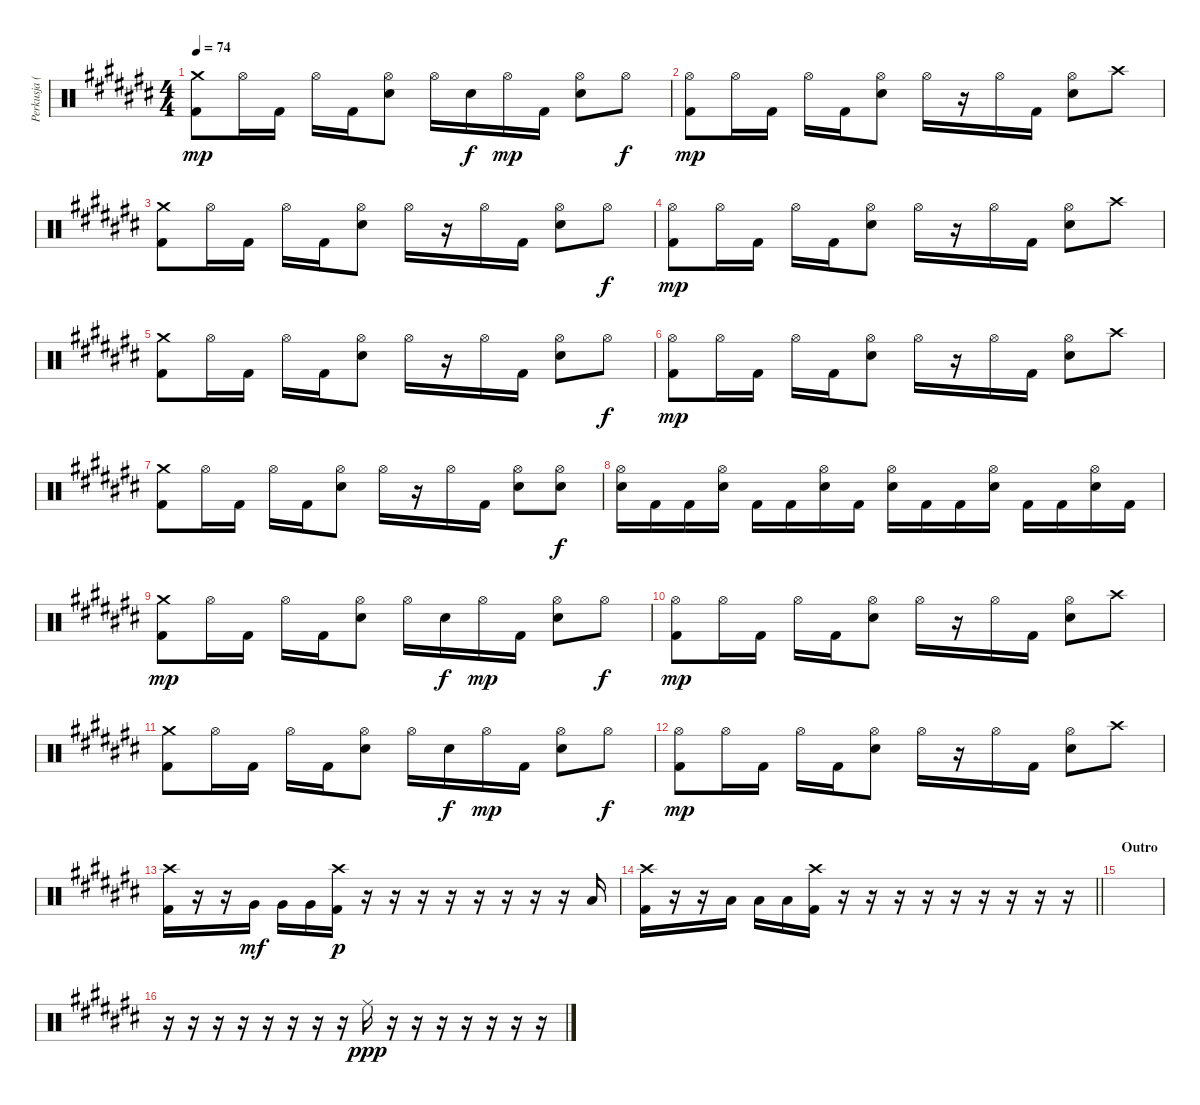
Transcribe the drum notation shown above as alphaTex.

\track ("Perkusja (by FleX)" "Perkusja (") {instrument percussion}
\staff {score}
\articulation defaults
\ts (4 4)
\tempo 74
\clef neutral
\ks a#minor
("Kick (hit) 2" "Crash medium (hit)").8{dy mp} "Hi-Hat (open)".16 "Kick (hit) 2".16 "Hi-Hat (open)".16 "Kick (hit) 2".16 ("Hi-Hat (open)" "Snare (hit) 2").8 "Hi-Hat (open)".16 "Snare (hit) 2".16{dy f} "Hi-Hat (open)".16{dy mp} "Kick (hit) 2".16 ("Hi-Hat (open)" "Snare (hit) 2").8 "Hi-Hat (open)".8{dy f} |
("Kick (hit) 2" "Hi-Hat (open)").8{dy mp} "Hi-Hat (open)".16 "Kick (hit) 2".16 "Hi-Hat (open)".16 "Kick (hit) 2".16 ("Hi-Hat (open)" "Snare (hit) 2").8 "Hi-Hat (open)".16 r.16 "Hi-Hat (open)".16 "Kick (hit) 2".16 ("Hi-Hat (open)" "Snare (hit) 2").8 "Crash high (hit)".8 |
("Kick (hit) 2" "Crash medium (hit)").8 "Hi-Hat (open)".16 "Kick (hit) 2".16 "Hi-Hat (open)".16 "Kick (hit) 2".16 ("Hi-Hat (open)" "Snare (hit) 2").8 "Hi-Hat (open)".16 r.16 "Hi-Hat (open)".16 "Kick (hit) 2".16 ("Hi-Hat (open)" "Snare (hit) 2").8 "Hi-Hat (open)".8{dy f} |
("Kick (hit) 2" "Hi-Hat (open)").8{dy mp} "Hi-Hat (open)".16 "Kick (hit) 2".16 "Hi-Hat (open)".16 "Kick (hit) 2".16 ("Hi-Hat (open)" "Snare (hit) 2").8 "Hi-Hat (open)".16 r.16 "Hi-Hat (open)".16 "Kick (hit) 2".16 ("Hi-Hat (open)" "Snare (hit) 2").8 "Crash high (hit)".8 |
("Kick (hit) 2" "Crash medium (hit)").8 "Hi-Hat (open)".16 "Kick (hit) 2".16 "Hi-Hat (open)".16 "Kick (hit) 2".16 ("Hi-Hat (open)" "Snare (hit) 2").8 "Hi-Hat (open)".16 r.16 "Hi-Hat (open)".16 "Kick (hit) 2".16 ("Hi-Hat (open)" "Snare (hit) 2").8 "Hi-Hat (open)".8{dy f} |
("Kick (hit) 2" "Hi-Hat (open)").8{dy mp} "Hi-Hat (open)".16 "Kick (hit) 2".16 "Hi-Hat (open)".16 "Kick (hit) 2".16 ("Hi-Hat (open)" "Snare (hit) 2").8 "Hi-Hat (open)".16 r.16 "Hi-Hat (open)".16 "Kick (hit) 2".16 ("Hi-Hat (open)" "Snare (hit) 2").8 "Crash high (hit)".8 |
("Kick (hit) 2" "Crash medium (hit)").8 "Hi-Hat (open)".16 "Kick (hit) 2".16 "Hi-Hat (open)".16 "Kick (hit) 2".16 ("Hi-Hat (open)" "Snare (hit) 2").8 "Hi-Hat (open)".16 r.16 "Hi-Hat (open)".16 "Kick (hit) 2".16 ("Hi-Hat (open)" "Snare (hit) 2").8 ("Snare (hit) 2" "Hi-Hat (open)").8{dy f} |
("Snare (hit) 2" "Hi-Hat (open)").16 "Kick (hit) 2".16 "Kick (hit) 2".16 ("Snare (hit) 2" "Hi-Hat (open)").16 "Kick (hit) 2".16 "Kick (hit) 2".16 ("Snare (hit) 2" "Hi-Hat (open)").16 "Kick (hit) 2".16 ("Snare (hit) 2" "Hi-Hat (open)").16 "Kick (hit) 2".16 "Kick (hit) 2".16 ("Snare (hit) 2" "Hi-Hat (open)").16 "Kick (hit) 2".16 "Kick (hit) 2".16 ("Hi-Hat (open)" "Snare (hit) 2").16 "Kick (hit) 2".16 |
("Kick (hit) 2" "Crash medium (hit)").8{dy mp} "Hi-Hat (open)".16 "Kick (hit) 2".16 "Hi-Hat (open)".16 "Kick (hit) 2".16 ("Hi-Hat (open)" "Snare (hit) 2").8 "Hi-Hat (open)".16 "Snare (hit) 2".16{dy f} "Hi-Hat (open)".16{dy mp} "Kick (hit) 2".16 ("Hi-Hat (open)" "Snare (hit) 2").8 "Hi-Hat (open)".8{dy f} |
("Kick (hit) 2" "Hi-Hat (open)").8{dy mp} "Hi-Hat (open)".16 "Kick (hit) 2".16 "Hi-Hat (open)".16 "Kick (hit) 2".16 ("Hi-Hat (open)" "Snare (hit) 2").8 "Hi-Hat (open)".16 r.16 "Hi-Hat (open)".16 "Kick (hit) 2".16 ("Hi-Hat (open)" "Snare (hit) 2").8 "Crash high (hit)".8 |
("Kick (hit) 2" "Crash medium (hit)").8 "Hi-Hat (open)".16 "Kick (hit) 2".16 "Hi-Hat (open)".16 "Kick (hit) 2".16 ("Hi-Hat (open)" "Snare (hit) 2").8 "Hi-Hat (open)".16 "Snare (hit) 2".16{dy f} "Hi-Hat (open)".16{dy mp} "Kick (hit) 2".16 ("Hi-Hat (open)" "Snare (hit) 2").8 "Hi-Hat (open)".8{dy f} |
("Kick (hit) 2" "Hi-Hat (open)").8{dy mp} "Hi-Hat (open)".16 "Kick (hit) 2".16 "Hi-Hat (open)".16 "Kick (hit) 2".16 ("Hi-Hat (open)" "Snare (hit) 2").8 "Hi-Hat (open)".16 r.16 "Hi-Hat (open)".16 "Kick (hit) 2".16 ("Hi-Hat (open)" "Snare (hit) 2").8 "Crash high (hit)".8 |
("Kick (hit) 2" "Crash high (hit)").16 r.16 r.16 "Very Low Tom (hit)".16{dy mf} "Very Low Tom (hit)".16 "Very Low Tom (hit)".16 ("Kick (hit) 2" "Crash high (hit)").16{dy p} r.16 r.16 r.16 r.16 r.16 r.16 r.16 r.16 "Low Floor Tom (hit)".16 |
\barLineRight lightlight
("Kick (hit) 2" "Crash high (hit)").16 r.16 r.16 "Low Floor Tom (hit)".16 "Low Floor Tom (hit)".16 "Low Floor Tom (hit)".16 ("Kick (hit) 2" "Crash high (hit)").16 r.16 r.16 r.16 r.16 r.16 r.16 r.16 r.16 r.16 |
\section ("" "Outro")
|
r.16 r.16 r.16 r.16 r.16 r.16 r.16 r.16 "Ride (middle)".16{dy ppp} r.16 r.16 r.16 r.16 r.16 r.16 r.16
